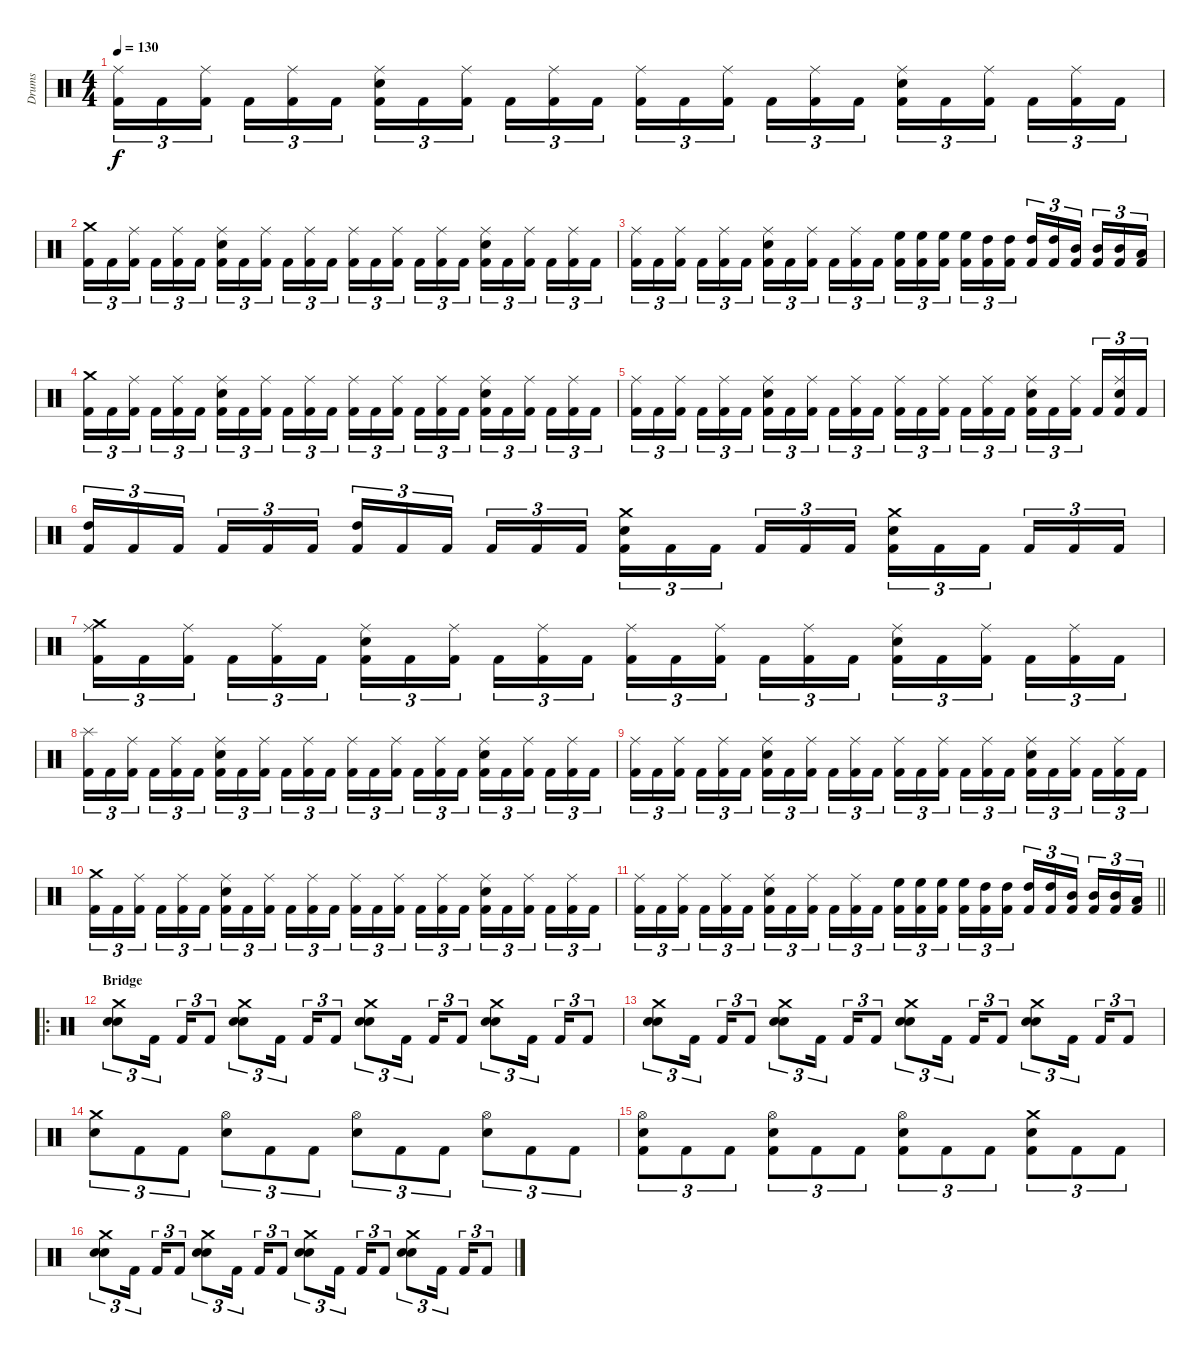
\track ("Drums" "Drums") {instrument percussion}
\staff {score}
\articulation defaults
\ts (4 4)
\tempo 130
\clef neutral
\ks c
("Kick (hit) 2" "Ride (middle)").16{tu (3 2) dy f} "Kick (hit) 2".16{tu (3 2)} ("Kick (hit) 2" "Ride (middle)").16{tu (3 2)} "Kick (hit) 2".16{tu (3 2)} ("Kick (hit) 2" "Ride (middle)").16{tu (3 2)} "Kick (hit) 2".16{tu (3 2)} ("Kick (hit) 2" "Electric Snare (hit)" "Ride (middle)").16{tu (3 2)} "Kick (hit) 2".16{tu (3 2)} ("Kick (hit) 2" "Ride (middle)").16{tu (3 2)} "Kick (hit) 2".16{tu (3 2)} ("Kick (hit) 2" "Ride (middle)").16{tu (3 2)} "Kick (hit) 2".16{tu (3 2)} ("Kick (hit) 2" "Ride (middle)").16{tu (3 2)} "Kick (hit) 2".16{tu (3 2)} ("Kick (hit) 2" "Ride (middle)").16{tu (3 2)} "Kick (hit) 2".16{tu (3 2)} ("Kick (hit) 2" "Ride (middle)").16{tu (3 2)} "Kick (hit) 2".16{tu (3 2)} ("Kick (hit) 2" "Electric Snare (hit)" "Ride (middle)").16{tu (3 2)} "Kick (hit) 2".16{tu (3 2)} ("Kick (hit) 2" "Ride (middle)").16{tu (3 2)} "Kick (hit) 2".16{tu (3 2)} ("Kick (hit) 2" "Ride (middle)").16{tu (3 2)} "Kick (hit) 2".16{tu (3 2)} |
("Kick (hit) 2" "Crash medium (hit)").16{tu (3 2)} "Kick (hit) 2".16{tu (3 2)} ("Kick (hit) 2" "Ride (middle)").16{tu (3 2)} "Kick (hit) 2".16{tu (3 2)} ("Kick (hit) 2" "Ride (middle)").16{tu (3 2)} "Kick (hit) 2".16{tu (3 2)} ("Kick (hit) 2" "Electric Snare (hit)" "Ride (middle)").16{tu (3 2)} "Kick (hit) 2".16{tu (3 2)} ("Kick (hit) 2" "Ride (middle)").16{tu (3 2)} "Kick (hit) 2".16{tu (3 2)} ("Kick (hit) 2" "Ride (middle)").16{tu (3 2)} "Kick (hit) 2".16{tu (3 2)} ("Kick (hit) 2" "Ride (middle)").16{tu (3 2)} "Kick (hit) 2".16{tu (3 2)} ("Kick (hit) 2" "Ride (middle)").16{tu (3 2)} "Kick (hit) 2".16{tu (3 2)} ("Kick (hit) 2" "Ride (middle)").16{tu (3 2)} "Kick (hit) 2".16{tu (3 2)} ("Kick (hit) 2" "Electric Snare (hit)" "Ride (middle)").16{tu (3 2)} "Kick (hit) 2".16{tu (3 2)} ("Kick (hit) 2" "Ride (middle)").16{tu (3 2)} "Kick (hit) 2".16{tu (3 2)} ("Kick (hit) 2" "Ride (middle)").16{tu (3 2)} "Kick (hit) 2".16{tu (3 2)} |
("Kick (hit) 2" "Ride (middle)").16{tu (3 2)} "Kick (hit) 2".16{tu (3 2)} ("Kick (hit) 2" "Ride (middle)").16{tu (3 2)} "Kick (hit) 2".16{tu (3 2)} ("Kick (hit) 2" "Ride (middle)").16{tu (3 2)} "Kick (hit) 2".16{tu (3 2)} ("Kick (hit) 2" "Electric Snare (hit)" "Ride (middle)").16{tu (3 2)} "Kick (hit) 2".16{tu (3 2)} ("Kick (hit) 2" "Ride (middle)").16{tu (3 2)} "Kick (hit) 2".16{tu (3 2)} ("Kick (hit) 2" "Ride (middle)").16{tu (3 2)} "Kick (hit) 2".16{tu (3 2)} ("Kick (hit) 2" "High Floor Tom (hit)").16{tu (3 2)} ("Kick (hit) 2" "High Floor Tom (hit)").16{tu (3 2)} ("Kick (hit) 2" "High Floor Tom (hit)").16{tu (3 2)} ("Kick (hit) 2" "High Floor Tom (hit)").16{tu (3 2)} ("Kick (hit) 2" "High Tom (hit)").16{tu (3 2)} ("Kick (hit) 2" "High Tom (hit)").16{tu (3 2)} ("Kick (hit) 2" "High Tom (hit)").16{tu (3 2)} ("Kick (hit) 2" "High Tom (hit)").16{tu (3 2)} ("Kick (hit) 2" "Mid Tom (hit)").16{tu (3 2)} ("Kick (hit) 2" "Mid Tom (hit)").16{tu (3 2)} ("Kick (hit) 2" "Mid Tom (hit)").16{tu (3 2)} ("Kick (hit) 2" "Low Tom (hit)").16{tu (3 2)} |
("Kick (hit) 2" "Crash medium (hit)").16{tu (3 2)} "Kick (hit) 2".16{tu (3 2)} ("Kick (hit) 2" "Ride (middle)").16{tu (3 2)} "Kick (hit) 2".16{tu (3 2)} ("Kick (hit) 2" "Ride (middle)").16{tu (3 2)} "Kick (hit) 2".16{tu (3 2)} ("Kick (hit) 2" "Electric Snare (hit)" "Ride (middle)").16{tu (3 2)} "Kick (hit) 2".16{tu (3 2)} ("Kick (hit) 2" "Ride (middle)").16{tu (3 2)} "Kick (hit) 2".16{tu (3 2)} ("Kick (hit) 2" "Ride (middle)").16{tu (3 2)} "Kick (hit) 2".16{tu (3 2)} ("Kick (hit) 2" "Ride (middle)").16{tu (3 2)} "Kick (hit) 2".16{tu (3 2)} ("Kick (hit) 2" "Ride (middle)").16{tu (3 2)} "Kick (hit) 2".16{tu (3 2)} ("Kick (hit) 2" "Ride (middle)").16{tu (3 2)} "Kick (hit) 2".16{tu (3 2)} ("Kick (hit) 2" "Electric Snare (hit)" "Ride (middle)").16{tu (3 2)} "Kick (hit) 2".16{tu (3 2)} ("Kick (hit) 2" "Ride (middle)").16{tu (3 2)} "Kick (hit) 2".16{tu (3 2)} ("Kick (hit) 2" "Ride (middle)").16{tu (3 2)} "Kick (hit) 2".16{tu (3 2)} |
("Kick (hit) 2" "Ride (middle)").16{tu (3 2)} "Kick (hit) 2".16{tu (3 2)} ("Kick (hit) 2" "Ride (middle)").16{tu (3 2)} "Kick (hit) 2".16{tu (3 2)} ("Kick (hit) 2" "Ride (middle)").16{tu (3 2)} "Kick (hit) 2".16{tu (3 2)} ("Kick (hit) 2" "Electric Snare (hit)" "Ride (middle)").16{tu (3 2)} "Kick (hit) 2".16{tu (3 2)} ("Kick (hit) 2" "Ride (middle)").16{tu (3 2)} "Kick (hit) 2".16{tu (3 2)} ("Kick (hit) 2" "Ride (middle)").16{tu (3 2)} "Kick (hit) 2".16{tu (3 2)} ("Kick (hit) 2" "Ride (middle)").16{tu (3 2)} "Kick (hit) 2".16{tu (3 2)} ("Kick (hit) 2" "Ride (middle)").16{tu (3 2)} "Kick (hit) 2".16{tu (3 2)} ("Kick (hit) 2" "Ride (middle)").16{tu (3 2)} "Kick (hit) 2".16{tu (3 2)} ("Kick (hit) 2" "Electric Snare (hit)" "Ride (middle)").16{tu (3 2)} "Kick (hit) 2".16{tu (3 2)} ("Kick (hit) 2" "Ride (middle)").16{tu (3 2)} "Kick (hit) 2".16{tu (3 2)} ("Kick (hit) 2" "Electric Snare (hit)" "Ride (middle)").16{tu (3 2)} "Kick (hit) 2".16{tu (3 2)} |
("Kick (hit) 2" "High Tom (hit)").16{tu (3 2)} "Kick (hit) 2".16{tu (3 2)} "Kick (hit) 2".16{tu (3 2)} "Kick (hit) 2".16{tu (3 2)} "Kick (hit) 2".16{tu (3 2)} "Kick (hit) 2".16{tu (3 2)} ("Kick (hit) 2" "High Tom (hit)").16{tu (3 2)} "Kick (hit) 2".16{tu (3 2)} "Kick (hit) 2".16{tu (3 2)} "Kick (hit) 2".16{tu (3 2)} "Kick (hit) 2".16{tu (3 2)} "Kick (hit) 2".16{tu (3 2)} ("Kick (hit) 2" "Electric Snare (hit)" "Crash medium (hit)").16{tu (3 2)} "Kick (hit) 2".16{tu (3 2)} "Kick (hit) 2".16{tu (3 2)} "Kick (hit) 2".16{tu (3 2)} "Kick (hit) 2".16{tu (3 2)} "Kick (hit) 2".16{tu (3 2)} ("Kick (hit) 2" "Electric Snare (hit)" "Crash medium (hit)").16{tu (3 2)} "Kick (hit) 2".16{tu (3 2)} "Kick (hit) 2".16{tu (3 2)} "Kick (hit) 2".16{tu (3 2)} "Kick (hit) 2".16{tu (3 2)} "Kick (hit) 2".16{tu (3 2)} |
("Kick (hit) 2" "Crash medium (hit)" "Ride (middle)").16{tu (3 2)} "Kick (hit) 2".16{tu (3 2)} ("Kick (hit) 2" "Ride (middle)").16{tu (3 2)} "Kick (hit) 2".16{tu (3 2)} ("Kick (hit) 2" "Ride (middle)").16{tu (3 2)} "Kick (hit) 2".16{tu (3 2)} ("Kick (hit) 2" "Electric Snare (hit)" "Ride (middle)").16{tu (3 2)} "Kick (hit) 2".16{tu (3 2)} ("Kick (hit) 2" "Ride (middle)").16{tu (3 2)} "Kick (hit) 2".16{tu (3 2)} ("Kick (hit) 2" "Ride (middle)").16{tu (3 2)} "Kick (hit) 2".16{tu (3 2)} ("Kick (hit) 2" "Ride (middle)").16{tu (3 2)} "Kick (hit) 2".16{tu (3 2)} ("Kick (hit) 2" "Ride (middle)").16{tu (3 2)} "Kick (hit) 2".16{tu (3 2)} ("Kick (hit) 2" "Ride (middle)").16{tu (3 2)} "Kick (hit) 2".16{tu (3 2)} ("Kick (hit) 2" "Electric Snare (hit)" "Ride (middle)").16{tu (3 2)} "Kick (hit) 2".16{tu (3 2)} ("Kick (hit) 2" "Ride (middle)").16{tu (3 2)} "Kick (hit) 2".16{tu (3 2)} ("Kick (hit) 2" "Ride (middle)").16{tu (3 2)} "Kick (hit) 2".16{tu (3 2)} |
("Kick (hit) 2" "Splash (hit)").16{tu (3 2)} "Kick (hit) 2".16{tu (3 2)} ("Kick (hit) 2" "Ride (middle)").16{tu (3 2)} "Kick (hit) 2".16{tu (3 2)} ("Kick (hit) 2" "Ride (middle)").16{tu (3 2)} "Kick (hit) 2".16{tu (3 2)} ("Kick (hit) 2" "Electric Snare (hit)" "Ride (middle)").16{tu (3 2)} "Kick (hit) 2".16{tu (3 2)} ("Kick (hit) 2" "Ride (middle)").16{tu (3 2)} "Kick (hit) 2".16{tu (3 2)} ("Kick (hit) 2" "Ride (middle)").16{tu (3 2)} "Kick (hit) 2".16{tu (3 2)} ("Kick (hit) 2" "Ride (middle)").16{tu (3 2)} "Kick (hit) 2".16{tu (3 2)} ("Kick (hit) 2" "Ride (middle)").16{tu (3 2)} "Kick (hit) 2".16{tu (3 2)} ("Kick (hit) 2" "Ride (middle)").16{tu (3 2)} "Kick (hit) 2".16{tu (3 2)} ("Kick (hit) 2" "Electric Snare (hit)" "Ride (middle)").16{tu (3 2)} "Kick (hit) 2".16{tu (3 2)} ("Kick (hit) 2" "Ride (middle)").16{tu (3 2)} "Kick (hit) 2".16{tu (3 2)} ("Kick (hit) 2" "Ride (middle)").16{tu (3 2)} "Kick (hit) 2".16{tu (3 2)} |
("Kick (hit) 2" "Ride (middle)").16{tu (3 2)} "Kick (hit) 2".16{tu (3 2)} ("Kick (hit) 2" "Ride (middle)").16{tu (3 2)} "Kick (hit) 2".16{tu (3 2)} ("Kick (hit) 2" "Ride (middle)").16{tu (3 2)} "Kick (hit) 2".16{tu (3 2)} ("Kick (hit) 2" "Electric Snare (hit)" "Ride (middle)").16{tu (3 2)} "Kick (hit) 2".16{tu (3 2)} ("Kick (hit) 2" "Ride (middle)").16{tu (3 2)} "Kick (hit) 2".16{tu (3 2)} ("Kick (hit) 2" "Ride (middle)").16{tu (3 2)} "Kick (hit) 2".16{tu (3 2)} ("Kick (hit) 2" "Ride (middle)").16{tu (3 2)} "Kick (hit) 2".16{tu (3 2)} ("Kick (hit) 2" "Ride (middle)").16{tu (3 2)} "Kick (hit) 2".16{tu (3 2)} ("Kick (hit) 2" "Ride (middle)").16{tu (3 2)} "Kick (hit) 2".16{tu (3 2)} ("Kick (hit) 2" "Electric Snare (hit)" "Ride (middle)").16{tu (3 2)} "Kick (hit) 2".16{tu (3 2)} ("Kick (hit) 2" "Ride (middle)").16{tu (3 2)} "Kick (hit) 2".16{tu (3 2)} ("Kick (hit) 2" "Ride (middle)").16{tu (3 2)} "Kick (hit) 2".16{tu (3 2)} |
("Kick (hit) 2" "Crash medium (hit)").16{tu (3 2)} "Kick (hit) 2".16{tu (3 2)} ("Kick (hit) 2" "Ride (middle)").16{tu (3 2)} "Kick (hit) 2".16{tu (3 2)} ("Kick (hit) 2" "Ride (middle)").16{tu (3 2)} "Kick (hit) 2".16{tu (3 2)} ("Kick (hit) 2" "Electric Snare (hit)" "Ride (middle)").16{tu (3 2)} "Kick (hit) 2".16{tu (3 2)} ("Kick (hit) 2" "Ride (middle)").16{tu (3 2)} "Kick (hit) 2".16{tu (3 2)} ("Kick (hit) 2" "Ride (middle)").16{tu (3 2)} "Kick (hit) 2".16{tu (3 2)} ("Kick (hit) 2" "Ride (middle)").16{tu (3 2)} "Kick (hit) 2".16{tu (3 2)} ("Kick (hit) 2" "Ride (middle)").16{tu (3 2)} "Kick (hit) 2".16{tu (3 2)} ("Kick (hit) 2" "Ride (middle)").16{tu (3 2)} "Kick (hit) 2".16{tu (3 2)} ("Kick (hit) 2" "Electric Snare (hit)" "Ride (middle)").16{tu (3 2)} "Kick (hit) 2".16{tu (3 2)} ("Kick (hit) 2" "Ride (middle)").16{tu (3 2)} "Kick (hit) 2".16{tu (3 2)} ("Kick (hit) 2" "Ride (middle)").16{tu (3 2)} "Kick (hit) 2".16{tu (3 2)} |
\barLineRight lightlight
("Kick (hit) 2" "Ride (middle)").16{tu (3 2)} "Kick (hit) 2".16{tu (3 2)} ("Kick (hit) 2" "Ride (middle)").16{tu (3 2)} "Kick (hit) 2".16{tu (3 2)} ("Kick (hit) 2" "Ride (middle)").16{tu (3 2)} "Kick (hit) 2".16{tu (3 2)} ("Kick (hit) 2" "Electric Snare (hit)" "Ride (middle)").16{tu (3 2)} "Kick (hit) 2".16{tu (3 2)} ("Kick (hit) 2" "Ride (middle)").16{tu (3 2)} "Kick (hit) 2".16{tu (3 2)} ("Kick (hit) 2" "Ride (middle)").16{tu (3 2)} "Kick (hit) 2".16{tu (3 2)} ("Kick (hit) 2" "High Floor Tom (hit)").16{tu (3 2)} ("Kick (hit) 2" "High Floor Tom (hit)").16{tu (3 2)} ("Kick (hit) 2" "High Floor Tom (hit)").16{tu (3 2)} ("Kick (hit) 2" "High Floor Tom (hit)").16{tu (3 2)} ("Kick (hit) 2" "High Tom (hit)").16{tu (3 2)} ("Kick (hit) 2" "High Tom (hit)").16{tu (3 2)} ("Kick (hit) 2" "High Tom (hit)").16{tu (3 2)} ("Kick (hit) 2" "High Tom (hit)").16{tu (3 2)} ("Kick (hit) 2" "Mid Tom (hit)").16{tu (3 2)} ("Kick (hit) 2" "Mid Tom (hit)").16{tu (3 2)} ("Kick (hit) 2" "Mid Tom (hit)").16{tu (3 2)} ("Kick (hit) 2" "Low Tom (hit)").16{tu (3 2)} |
\ro
\section ("" "Bridge")
("Crash medium (hit)" "Electric Snare (hit)" "Electric Snare (hit)").8{tu (3 2)} "Kick (hit) 2".16{tu (3 2)} "Kick (hit) 2".16{tu (3 2)} "Kick (hit) 2".8{tu (3 2)} ("Crash medium (hit)" "Electric Snare (hit)" "Electric Snare (hit)").8{tu (3 2)} "Kick (hit) 2".16{tu (3 2)} "Kick (hit) 2".16{tu (3 2)} "Kick (hit) 2".8{tu (3 2)} ("Crash medium (hit)" "Electric Snare (hit)" "Electric Snare (hit)").8{tu (3 2)} "Kick (hit) 2".16{tu (3 2)} "Kick (hit) 2".16{tu (3 2)} "Kick (hit) 2".8{tu (3 2)} ("Crash medium (hit)" "Electric Snare (hit)" "Electric Snare (hit)").8{tu (3 2)} "Kick (hit) 2".16{tu (3 2)} "Kick (hit) 2".16{tu (3 2)} "Kick (hit) 2".8{tu (3 2)} |
("Crash medium (hit)" "Electric Snare (hit)" "Electric Snare (hit)").8{tu (3 2)} "Kick (hit) 2".16{tu (3 2)} "Kick (hit) 2".16{tu (3 2)} "Kick (hit) 2".8{tu (3 2)} ("Crash medium (hit)" "Electric Snare (hit)" "Electric Snare (hit)").8{tu (3 2)} "Kick (hit) 2".16{tu (3 2)} "Kick (hit) 2".16{tu (3 2)} "Kick (hit) 2".8{tu (3 2)} ("Crash medium (hit)" "Electric Snare (hit)" "Electric Snare (hit)").8{tu (3 2)} "Kick (hit) 2".16{tu (3 2)} "Kick (hit) 2".16{tu (3 2)} "Kick (hit) 2".8{tu (3 2)} ("Crash medium (hit)" "Electric Snare (hit)" "Electric Snare (hit)").8{tu (3 2)} "Kick (hit) 2".16{tu (3 2)} "Kick (hit) 2".16{tu (3 2)} "Kick (hit) 2".8{tu (3 2)} |
("Crash medium (hit)" "Electric Snare (hit)").8{tu (3 2)} "Kick (hit) 2".8{tu (3 2)} "Kick (hit) 2".8{tu (3 2)} ("Hi-Hat (open)" "Electric Snare (hit)").8{tu (3 2)} "Kick (hit) 2".8{tu (3 2)} "Kick (hit) 2".8{tu (3 2)} ("Hi-Hat (open)" "Electric Snare (hit)").8{tu (3 2)} "Kick (hit) 2".8{tu (3 2)} "Kick (hit) 2".8{tu (3 2)} ("Hi-Hat (open)" "Electric Snare (hit)").8{tu (3 2)} "Kick (hit) 2".8{tu (3 2)} "Kick (hit) 2".8{tu (3 2)} |
("Hi-Hat (open)" "Electric Snare (hit)" "Kick (hit) 2").8{tu (3 2)} "Kick (hit) 2".8{tu (3 2)} "Kick (hit) 2".8{tu (3 2)} ("Hi-Hat (open)" "Electric Snare (hit)" "Kick (hit) 2").8{tu (3 2)} "Kick (hit) 2".8{tu (3 2)} "Kick (hit) 2".8{tu (3 2)} ("Hi-Hat (open)" "Electric Snare (hit)" "Kick (hit) 2").8{tu (3 2)} "Kick (hit) 2".8{tu (3 2)} "Kick (hit) 2".8{tu (3 2)} ("Crash medium (hit)" "Electric Snare (hit)" "Kick (hit) 2").8{tu (3 2)} "Kick (hit) 2".8{tu (3 2)} "Kick (hit) 2".8{tu (3 2)} |
("Crash medium (hit)" "Electric Snare (hit)" "Electric Snare (hit)").8{tu (3 2)} "Kick (hit) 2".16{tu (3 2)} "Kick (hit) 2".16{tu (3 2)} "Kick (hit) 2".8{tu (3 2)} ("Crash medium (hit)" "Electric Snare (hit)" "Electric Snare (hit)").8{tu (3 2)} "Kick (hit) 2".16{tu (3 2)} "Kick (hit) 2".16{tu (3 2)} "Kick (hit) 2".8{tu (3 2)} ("Crash medium (hit)" "Electric Snare (hit)" "Electric Snare (hit)").8{tu (3 2)} "Kick (hit) 2".16{tu (3 2)} "Kick (hit) 2".16{tu (3 2)} "Kick (hit) 2".8{tu (3 2)} ("Crash medium (hit)" "Electric Snare (hit)" "Electric Snare (hit)").8{tu (3 2)} "Kick (hit) 2".16{tu (3 2)} "Kick (hit) 2".16{tu (3 2)} "Kick (hit) 2".8{tu (3 2)}
